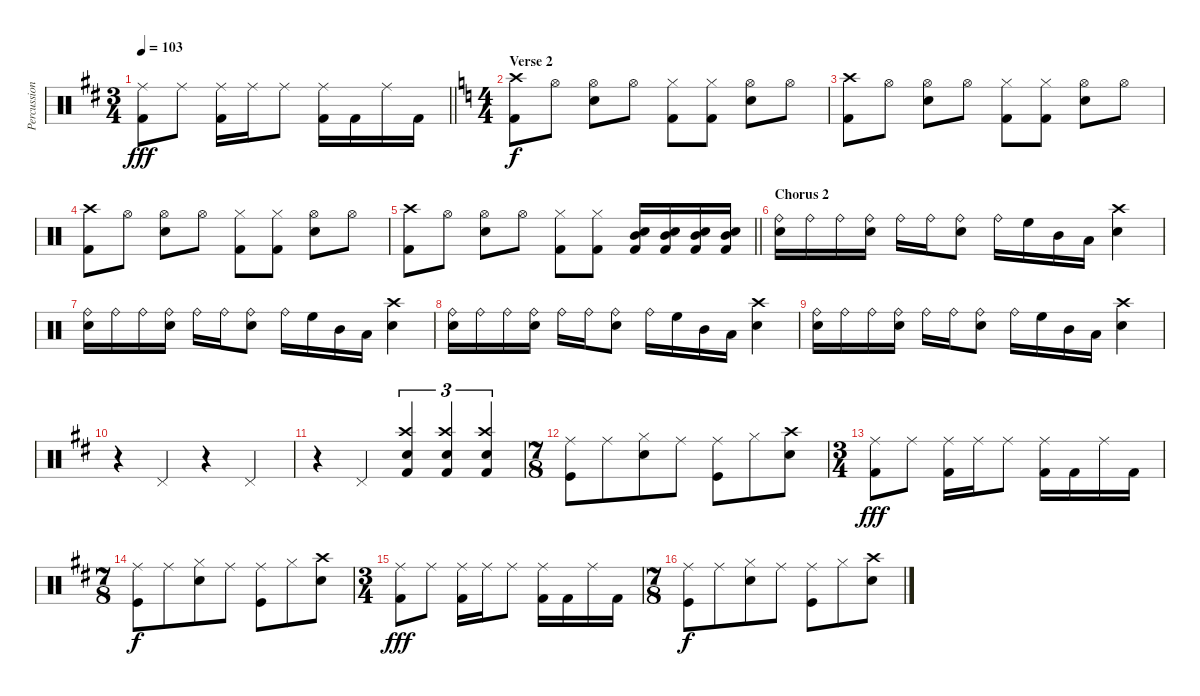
\track ("Percussion" "Percussion") {instrument percussion}
\staff {score}
\articulation defaults
\ts (3 4)
\tempo 103
\clef neutral
\barLineRight lightlight
\ks d
("Ride (middle)" "Kick (hit) 2").8{dy fff} "Ride (middle)".8 ("Ride (middle)" "Kick (hit) 2").16 "Ride (middle)".16 "Ride (middle)".8 ("Ride (middle)" "Kick (hit) 2").16 "Kick (hit) 2".16 "Ride (middle)".16 "Kick (hit) 2".16 |
\ts (4 4)
\section ("" "Verse 2")
\ks c
("Crash high (hit)" "Kick (hit) 2").8{dy f} "Hi-Hat (open)".8 ("Hi-Hat (open)" "Snare (hit) 2").8 "Hi-Hat (open)".8 ("Hi-Hat (closed)" "Kick (hit) 2").8 ("Hi-Hat (closed)" "Kick (hit) 2").8 ("Hi-Hat (open)" "Snare (hit) 2").8 "Hi-Hat (open)".8 |
("Crash high (hit)" "Kick (hit) 2").8 "Hi-Hat (open)".8 ("Hi-Hat (open)" "Snare (hit) 2").8 "Hi-Hat (open)".8 ("Hi-Hat (closed)" "Kick (hit) 2").8 ("Hi-Hat (closed)" "Kick (hit) 2").8 ("Hi-Hat (open)" "Snare (hit) 2").8 "Hi-Hat (open)".8 |
("Crash high (hit)" "Kick (hit) 2").8 "Hi-Hat (open)".8 ("Hi-Hat (open)" "Snare (hit) 2").8 "Hi-Hat (open)".8 ("Hi-Hat (closed)" "Kick (hit) 2").8 ("Hi-Hat (closed)" "Kick (hit) 2").8 ("Hi-Hat (open)" "Snare (hit) 2").8 "Hi-Hat (open)".8 |
\barLineRight lightlight
("Crash high (hit)" "Kick (hit) 2").8 "Hi-Hat (open)".8 ("Hi-Hat (open)" "Snare (hit) 2").8 "Hi-Hat (open)".8 ("Hi-Hat (closed)" "Kick (hit) 2").8 ("Hi-Hat (closed)" "Kick (hit) 2").8 ("Kick (hit) 2" "Snare (hit) 2" "Mid Tom (hit)").16 ("Kick (hit) 2" "Snare (hit) 2" "Mid Tom (hit)").16 ("Kick (hit) 2" "Snare (hit) 2" "Mid Tom (hit)").16 ("Kick (hit) 2" "Snare (hit) 2" "Mid Tom (hit)").16 |
\section ("" "Chorus 2")
("Ride (bell)" "Snare (hit) 2").16 "Ride (bell)".16 "Ride (bell)".16 ("Ride (bell)" "Snare (hit) 2").16 "Ride (bell)".16 "Ride (bell)".16 ("Ride (bell)" "Snare (hit) 2").8 "Ride (bell)".16 "High Floor Tom (hit)".16 "Mid Tom (hit)".16 "Low Floor Tom (hit)".16 ("Crash high (hit)" "Snare (hit) 2").4 |
("Ride (bell)" "Snare (hit) 2").16 "Ride (bell)".16 "Ride (bell)".16 ("Ride (bell)" "Snare (hit) 2").16 "Ride (bell)".16 "Ride (bell)".16 ("Ride (bell)" "Snare (hit) 2").8 "Ride (bell)".16 "High Floor Tom (hit)".16 "Mid Tom (hit)".16 "Low Floor Tom (hit)".16 ("Crash high (hit)" "Snare (hit) 2").4 |
("Ride (bell)" "Snare (hit) 2").16 "Ride (bell)".16 "Ride (bell)".16 ("Ride (bell)" "Snare (hit) 2").16 "Ride (bell)".16 "Ride (bell)".16 ("Ride (bell)" "Snare (hit) 2").8 "Ride (bell)".16 "High Floor Tom (hit)".16 "Mid Tom (hit)".16 "Low Floor Tom (hit)".16 ("Crash high (hit)" "Snare (hit) 2").4 |
("Ride (bell)" "Snare (hit) 2").16 "Ride (bell)".16 "Ride (bell)".16 ("Ride (bell)" "Snare (hit) 2").16 "Ride (bell)".16 "Ride (bell)".16 ("Ride (bell)" "Snare (hit) 2").8 "Ride (bell)".16 "High Floor Tom (hit)".16 "Mid Tom (hit)".16 "Low Floor Tom (hit)".16 ("Crash high (hit)" "Snare (hit) 2").4 |
\ks d
r.4 "Pedal Hi-Hat (hit)".4 r.4 "Pedal Hi-Hat (hit)".4 |
r.4 "Pedal Hi-Hat (hit)".4 ("Crash high (hit)" "Snare (hit) 2" "Kick (hit) 2").4{tu (3 2)} ("Crash high (hit)" "Snare (hit) 2" "Kick (hit) 2").4{tu (3 2)} ("Crash high (hit)" "Snare (hit) 2" "Kick (hit) 2").4{tu (3 2)} |
\ts (7 8)
("Ride (middle)" "Kick (hit)").8 "Ride (middle)".8 ("Hi-Hat (closed)" "Snare (hit) 2").8 "Ride (middle)".8 ("Ride (middle)" "Kick (hit)").8 "Hi-Hat (closed)".8 ("Crash high (hit)" "Snare (hit) 2").8 |
\ts (3 4)
("Ride (middle)" "Kick (hit) 2").8{dy fff} "Ride (middle)".8 ("Ride (middle)" "Kick (hit) 2").16 "Ride (middle)".16 "Ride (middle)".8 ("Ride (middle)" "Kick (hit) 2").16 "Kick (hit) 2".16 "Ride (middle)".16 "Kick (hit) 2".16 |
\ts (7 8)
("Ride (middle)" "Kick (hit)").8{dy f} "Ride (middle)".8 ("Hi-Hat (closed)" "Snare (hit) 2").8 "Ride (middle)".8 ("Ride (middle)" "Kick (hit)").8 "Hi-Hat (closed)".8 ("Crash high (hit)" "Snare (hit) 2").8 |
\ts (3 4)
("Ride (middle)" "Kick (hit) 2").8{dy fff} "Ride (middle)".8 ("Ride (middle)" "Kick (hit) 2").16 "Ride (middle)".16 "Ride (middle)".8 ("Ride (middle)" "Kick (hit) 2").16 "Kick (hit) 2".16 "Ride (middle)".16 "Kick (hit) 2".16 |
\ts (7 8)
("Ride (middle)" "Kick (hit)").8{dy f} "Ride (middle)".8 ("Hi-Hat (closed)" "Snare (hit) 2").8 "Ride (middle)".8 ("Ride (middle)" "Kick (hit)").8 "Hi-Hat (closed)".8 ("Crash high (hit)" "Snare (hit) 2").8
